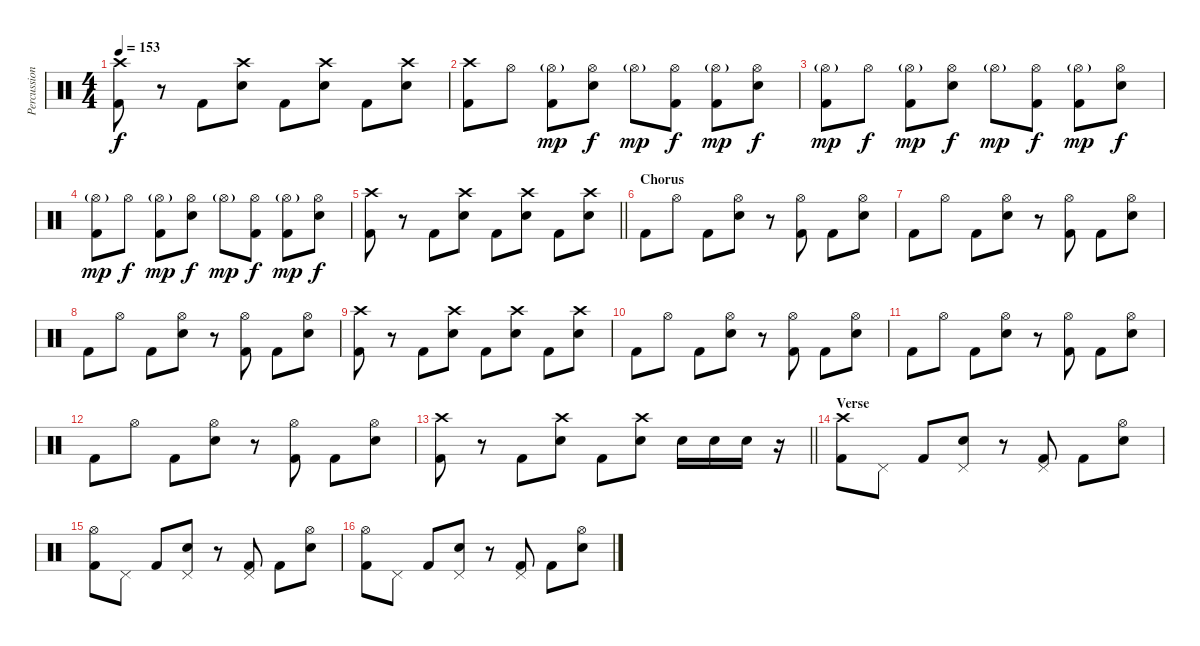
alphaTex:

\track ("Percussion" "Percussion") {instrument percussion}
\staff {score}
\articulation defaults
\ts (4 4)
\tempo 153
\clef neutral
\ks c
("Crash high (hit)" "Kick (hit) 2").8{dy f} r.8 "Kick (hit) 2".8 ("Crash high (hit)" "Electric Snare (hit)").8 "Kick (hit) 2".8 ("Crash high (hit)" "Electric Snare (hit)").8 "Kick (hit) 2".8 ("Crash high (hit)" "Electric Snare (hit)").8 |
("Crash high (hit)" "Kick (hit) 2").8 "Hi-Hat (open)".8 ("Hi-Hat (open)"{g} "Kick (hit) 2").8{dy mp} ("Hi-Hat (open)" "Electric Snare (hit)").8{dy f} "Hi-Hat (open)"{g}.8{dy mp} ("Hi-Hat (open)" "Kick (hit) 2").8{dy f} ("Hi-Hat (open)"{g} "Kick (hit) 2").8{dy mp} ("Hi-Hat (open)" "Electric Snare (hit)").8{dy f} |
("Hi-Hat (open)"{g} "Kick (hit) 2").8{dy mp} "Hi-Hat (open)".8{dy f} ("Hi-Hat (open)"{g} "Kick (hit) 2").8{dy mp} ("Hi-Hat (open)" "Electric Snare (hit)").8{dy f} "Hi-Hat (open)"{g}.8{dy mp} ("Hi-Hat (open)" "Kick (hit) 2").8{dy f} ("Hi-Hat (open)"{g} "Kick (hit) 2").8{dy mp} ("Hi-Hat (open)" "Electric Snare (hit)").8{dy f} |
("Hi-Hat (open)"{g} "Kick (hit) 2").8{dy mp} "Hi-Hat (open)".8{dy f} ("Hi-Hat (open)"{g} "Kick (hit) 2").8{dy mp} ("Hi-Hat (open)" "Electric Snare (hit)").8{dy f} "Hi-Hat (open)"{g}.8{dy mp} ("Hi-Hat (open)" "Kick (hit) 2").8{dy f} ("Hi-Hat (open)"{g} "Kick (hit) 2").8{dy mp} ("Hi-Hat (open)" "Electric Snare (hit)").8{dy f} |
\barLineRight lightlight
("Crash high (hit)" "Kick (hit) 2").8 r.8 "Kick (hit) 2".8 ("Crash high (hit)" "Electric Snare (hit)").8 "Kick (hit) 2".8 ("Crash high (hit)" "Electric Snare (hit)").8 "Kick (hit) 2".8 ("Crash high (hit)" "Electric Snare (hit)").8 |
\section ("" "Chorus")
"Kick (hit) 2".8 "Hi-Hat (open)".8 "Kick (hit) 2".8 ("Hi-Hat (open)" "Electric Snare (hit)").8 r.8 ("Hi-Hat (open)" "Kick (hit) 2").8 "Kick (hit) 2".8 ("Hi-Hat (open)" "Electric Snare (hit)").8 |
"Kick (hit) 2".8 "Hi-Hat (open)".8 "Kick (hit) 2".8 ("Hi-Hat (open)" "Electric Snare (hit)").8 r.8 ("Hi-Hat (open)" "Kick (hit) 2").8 "Kick (hit) 2".8 ("Hi-Hat (open)" "Electric Snare (hit)").8 |
"Kick (hit) 2".8 "Hi-Hat (open)".8 "Kick (hit) 2".8 ("Hi-Hat (open)" "Electric Snare (hit)").8 r.8 ("Hi-Hat (open)" "Kick (hit) 2").8 "Kick (hit) 2".8 ("Hi-Hat (open)" "Electric Snare (hit)").8 |
("Crash high (hit)" "Kick (hit) 2").8 r.8 "Kick (hit) 2".8 ("Crash high (hit)" "Electric Snare (hit)").8 "Kick (hit) 2".8 ("Crash high (hit)" "Electric Snare (hit)").8 "Kick (hit) 2".8 ("Crash high (hit)" "Electric Snare (hit)").8 |
"Kick (hit) 2".8 "Hi-Hat (open)".8 "Kick (hit) 2".8 ("Hi-Hat (open)" "Electric Snare (hit)").8 r.8 ("Hi-Hat (open)" "Kick (hit) 2").8 "Kick (hit) 2".8 ("Hi-Hat (open)" "Electric Snare (hit)").8 |
"Kick (hit) 2".8 "Hi-Hat (open)".8 "Kick (hit) 2".8 ("Hi-Hat (open)" "Electric Snare (hit)").8 r.8 ("Hi-Hat (open)" "Kick (hit) 2").8 "Kick (hit) 2".8 ("Hi-Hat (open)" "Electric Snare (hit)").8 |
"Kick (hit) 2".8 "Hi-Hat (open)".8 "Kick (hit) 2".8 ("Hi-Hat (open)" "Electric Snare (hit)").8 r.8 ("Hi-Hat (open)" "Kick (hit) 2").8 "Kick (hit) 2".8 ("Hi-Hat (open)" "Electric Snare (hit)").8 |
\barLineRight lightlight
("Crash high (hit)" "Kick (hit) 2").8 r.8 "Kick (hit) 2".8 ("Crash high (hit)" "Electric Snare (hit)").8 "Kick (hit) 2".8 ("Crash high (hit)" "Electric Snare (hit)").8 "Electric Snare (hit)".16 "Electric Snare (hit)".16 "Electric Snare (hit)".16 r.16 |
\section ("" "Verse")
("Crash high (hit)" "Kick (hit) 2").8 "Pedal Hi-Hat (hit)".8 "Kick (hit) 2".8 ("Pedal Hi-Hat (hit)" "Electric Snare (hit)").8 r.8 ("Pedal Hi-Hat (hit)" "Kick (hit) 2").8 "Kick (hit) 2".8 ("Hi-Hat (open)" "Electric Snare (hit)").8 |
("Hi-Hat (open)" "Kick (hit) 2").8 "Pedal Hi-Hat (hit)".8 "Kick (hit) 2".8 ("Pedal Hi-Hat (hit)" "Electric Snare (hit)").8 r.8 ("Pedal Hi-Hat (hit)" "Kick (hit) 2").8 "Kick (hit) 2".8 ("Hi-Hat (open)" "Electric Snare (hit)").8 |
("Hi-Hat (open)" "Kick (hit) 2").8 "Pedal Hi-Hat (hit)".8 "Kick (hit) 2".8 ("Pedal Hi-Hat (hit)" "Electric Snare (hit)").8 r.8 ("Pedal Hi-Hat (hit)" "Kick (hit) 2").8 "Kick (hit) 2".8 ("Hi-Hat (open)" "Electric Snare (hit)").8
